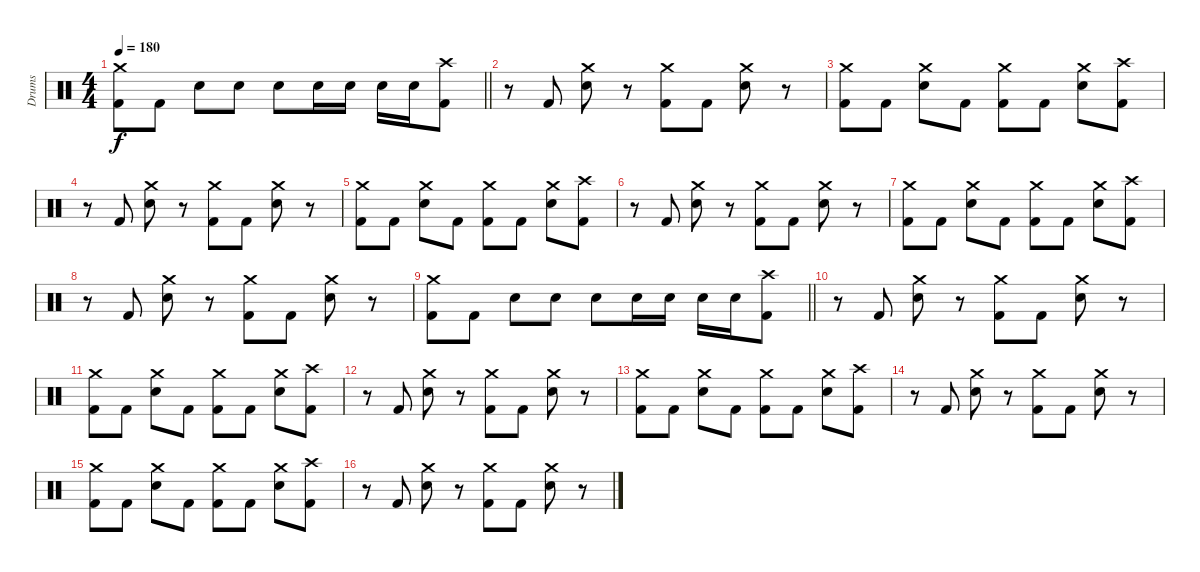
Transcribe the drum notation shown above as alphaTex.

\track ("Drums" "Drums") {instrument percussion}
\staff {score}
\articulation defaults
\ts (4 4)
\tempo 180
\clef neutral
\barLineRight lightlight
\ks c
("Crash medium (hit)" "Kick (hit) 2").8{dy f} "Kick (hit) 2".8 "Snare (hit) 2".8 "Snare (hit) 2".8 "Snare (hit) 2".8 "Snare (hit) 2".16 "Snare (hit) 2".16 "Snare (hit) 2".16 "Snare (hit) 2".16 ("Crash high (hit)" "Kick (hit) 2").8 |
r.8 "Kick (hit) 2".8 ("Crash medium (hit)" "Snare (hit) 2").8 r.8 ("Crash medium (hit)" "Kick (hit) 2").8 "Kick (hit) 2".8 ("Crash medium (hit)" "Snare (hit) 2").8 r.8 |
("Crash medium (hit)" "Kick (hit) 2").8 "Kick (hit) 2".8 ("Crash medium (hit)" "Snare (hit) 2").8 "Kick (hit) 2".8 ("Crash medium (hit)" "Kick (hit) 2").8 "Kick (hit) 2".8 ("Crash medium (hit)" "Snare (hit) 2").8 ("Crash high (hit)" "Kick (hit) 2").8 |
r.8 "Kick (hit) 2".8 ("Crash medium (hit)" "Snare (hit) 2").8 r.8 ("Crash medium (hit)" "Kick (hit) 2").8 "Kick (hit) 2".8 ("Crash medium (hit)" "Snare (hit) 2").8 r.8 |
("Crash medium (hit)" "Kick (hit) 2").8 "Kick (hit) 2".8 ("Crash medium (hit)" "Snare (hit) 2").8 "Kick (hit) 2".8 ("Crash medium (hit)" "Kick (hit) 2").8 "Kick (hit) 2".8 ("Crash medium (hit)" "Snare (hit) 2").8 ("Crash high (hit)" "Kick (hit) 2").8 |
r.8 "Kick (hit) 2".8 ("Crash medium (hit)" "Snare (hit) 2").8 r.8 ("Crash medium (hit)" "Kick (hit) 2").8 "Kick (hit) 2".8 ("Crash medium (hit)" "Snare (hit) 2").8 r.8 |
("Crash medium (hit)" "Kick (hit) 2").8 "Kick (hit) 2".8 ("Crash medium (hit)" "Snare (hit) 2").8 "Kick (hit) 2".8 ("Crash medium (hit)" "Kick (hit) 2").8 "Kick (hit) 2".8 ("Crash medium (hit)" "Snare (hit) 2").8 ("Crash high (hit)" "Kick (hit) 2").8 |
r.8 "Kick (hit) 2".8 ("Crash medium (hit)" "Snare (hit) 2").8 r.8 ("Crash medium (hit)" "Kick (hit) 2").8 "Kick (hit) 2".8 ("Crash medium (hit)" "Snare (hit) 2").8 r.8 |
\barLineRight lightlight
("Crash medium (hit)" "Kick (hit) 2").8 "Kick (hit) 2".8 "Snare (hit) 2".8 "Snare (hit) 2".8 "Snare (hit) 2".8 "Snare (hit) 2".16 "Snare (hit) 2".16 "Snare (hit) 2".16 "Snare (hit) 2".16 ("Crash high (hit)" "Kick (hit) 2").8 |
r.8 "Kick (hit) 2".8 ("Crash medium (hit)" "Snare (hit) 2").8 r.8 ("Crash medium (hit)" "Kick (hit) 2").8 "Kick (hit) 2".8 ("Crash medium (hit)" "Snare (hit) 2").8 r.8 |
("Crash medium (hit)" "Kick (hit) 2").8 "Kick (hit) 2".8 ("Crash medium (hit)" "Snare (hit) 2").8 "Kick (hit) 2".8 ("Crash medium (hit)" "Kick (hit) 2").8 "Kick (hit) 2".8 ("Crash medium (hit)" "Snare (hit) 2").8 ("Crash high (hit)" "Kick (hit) 2").8 |
r.8 "Kick (hit) 2".8 ("Crash medium (hit)" "Snare (hit) 2").8 r.8 ("Crash medium (hit)" "Kick (hit) 2").8 "Kick (hit) 2".8 ("Crash medium (hit)" "Snare (hit) 2").8 r.8 |
("Crash medium (hit)" "Kick (hit) 2").8 "Kick (hit) 2".8 ("Crash medium (hit)" "Snare (hit) 2").8 "Kick (hit) 2".8 ("Crash medium (hit)" "Kick (hit) 2").8 "Kick (hit) 2".8 ("Crash medium (hit)" "Snare (hit) 2").8 ("Crash high (hit)" "Kick (hit) 2").8 |
r.8 "Kick (hit) 2".8 ("Crash medium (hit)" "Snare (hit) 2").8 r.8 ("Crash medium (hit)" "Kick (hit) 2").8 "Kick (hit) 2".8 ("Crash medium (hit)" "Snare (hit) 2").8 r.8 |
("Crash medium (hit)" "Kick (hit) 2").8 "Kick (hit) 2".8 ("Crash medium (hit)" "Snare (hit) 2").8 "Kick (hit) 2".8 ("Crash medium (hit)" "Kick (hit) 2").8 "Kick (hit) 2".8 ("Crash medium (hit)" "Snare (hit) 2").8 ("Crash high (hit)" "Kick (hit) 2").8 |
r.8 "Kick (hit) 2".8 ("Crash medium (hit)" "Snare (hit) 2").8 r.8 ("Crash medium (hit)" "Kick (hit) 2").8 "Kick (hit) 2".8 ("Crash medium (hit)" "Snare (hit) 2").8 r.8
